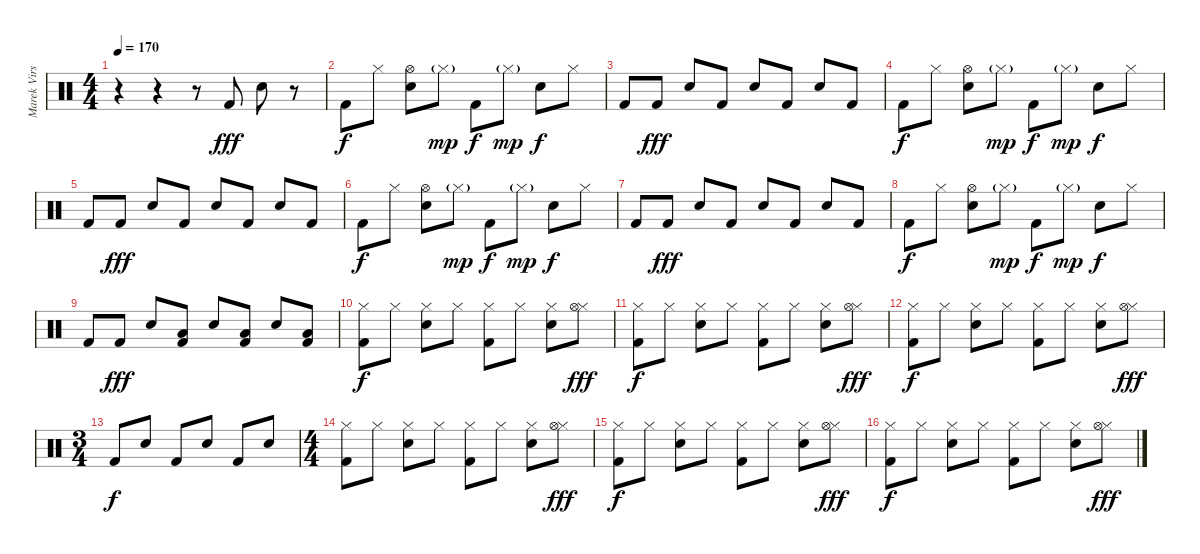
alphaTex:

\track ("Marek Virsik" "Marek Virs") {instrument percussion}
\staff {score}
\articulation defaults
\ts (4 4)
\tempo 170
\clef neutral
\ks c
r.4{dy fff} r.4 r.8 "Kick (hit) 2".8 "Electric Snare (hit)".8 r.8 |
"Kick (hit) 2".8{dy f} "Hi-Hat (closed)".8 ("Hi-Hat (open)" "Electric Snare (hit)").8 "Hi-Hat (closed)"{g}.8{dy mp} "Kick (hit) 2".8{dy f} "Hi-Hat (closed)"{g}.8{dy mp} "Electric Snare (hit)".8{dy f} "Hi-Hat (closed)".8 |
"Kick (hit) 2".8 "Kick (hit) 2".8{dy fff} "Electric Snare (hit)".8 "Kick (hit) 2".8 "Electric Snare (hit)".8 "Kick (hit) 2".8 "Electric Snare (hit)".8 "Kick (hit) 2".8 |
"Kick (hit) 2".8{dy f} "Hi-Hat (closed)".8 ("Hi-Hat (open)" "Electric Snare (hit)").8 "Hi-Hat (closed)"{g}.8{dy mp} "Kick (hit) 2".8{dy f} "Hi-Hat (closed)"{g}.8{dy mp} "Electric Snare (hit)".8{dy f} "Hi-Hat (closed)".8 |
"Kick (hit) 2".8 "Kick (hit) 2".8{dy fff} "Electric Snare (hit)".8 "Kick (hit) 2".8 "Electric Snare (hit)".8 "Kick (hit) 2".8 "Electric Snare (hit)".8 "Kick (hit) 2".8 |
"Kick (hit) 2".8{dy f} "Hi-Hat (closed)".8 ("Hi-Hat (open)" "Electric Snare (hit)").8 "Hi-Hat (closed)"{g}.8{dy mp} "Kick (hit) 2".8{dy f} "Hi-Hat (closed)"{g}.8{dy mp} "Electric Snare (hit)".8{dy f} "Hi-Hat (closed)".8 |
"Kick (hit) 2".8 "Kick (hit) 2".8{dy fff} "Electric Snare (hit)".8 "Kick (hit) 2".8 "Electric Snare (hit)".8 "Kick (hit) 2".8 "Electric Snare (hit)".8 "Kick (hit) 2".8 |
"Kick (hit) 2".8{dy f} "Hi-Hat (closed)".8 ("Hi-Hat (open)" "Electric Snare (hit)").8 "Hi-Hat (closed)"{g}.8{dy mp} "Kick (hit) 2".8{dy f} "Hi-Hat (closed)"{g}.8{dy mp} "Electric Snare (hit)".8{dy f} "Hi-Hat (closed)".8 |
"Kick (hit) 2".8 "Kick (hit) 2".8{dy fff} "Electric Snare (hit)".8 ("Low Floor Tom (hit)" "Kick (hit) 2").8 "Electric Snare (hit)".8 ("Low Floor Tom (hit)" "Kick (hit) 2").8 "Electric Snare (hit)".8 ("Low Floor Tom (hit)" "Kick (hit) 2").8 |
("Hi-Hat (closed)" "Kick (hit) 2").8{dy f} "Hi-Hat (closed)".8 ("Hi-Hat (closed)" "Electric Snare (hit)").8 "Hi-Hat (closed)".8 ("Hi-Hat (closed)" "Kick (hit) 2").8 "Hi-Hat (closed)".8 ("Hi-Hat (closed)" "Electric Snare (hit)").8 ("Hi-Hat (closed)" "Hi-Hat (open)").8{dy fff} |
("Hi-Hat (closed)" "Kick (hit) 2").8{dy f} "Hi-Hat (closed)".8 ("Hi-Hat (closed)" "Electric Snare (hit)").8 "Hi-Hat (closed)".8 ("Hi-Hat (closed)" "Kick (hit) 2").8 "Hi-Hat (closed)".8 ("Hi-Hat (closed)" "Electric Snare (hit)").8 ("Hi-Hat (closed)" "Hi-Hat (open)").8{dy fff} |
("Hi-Hat (closed)" "Kick (hit) 2").8{dy f} "Hi-Hat (closed)".8 ("Hi-Hat (closed)" "Electric Snare (hit)").8 "Hi-Hat (closed)".8 ("Hi-Hat (closed)" "Kick (hit) 2").8 "Hi-Hat (closed)".8 ("Hi-Hat (closed)" "Electric Snare (hit)").8 ("Hi-Hat (closed)" "Hi-Hat (open)").8{dy fff} |
\ts (3 4)
"Kick (hit) 2".8{dy f} "Electric Snare (hit)".8 "Kick (hit) 2".8 "Electric Snare (hit)".8 "Kick (hit) 2".8 "Electric Snare (hit)".8 |
\ts (4 4)
("Hi-Hat (closed)" "Kick (hit) 2").8 "Hi-Hat (closed)".8 ("Hi-Hat (closed)" "Electric Snare (hit)").8 "Hi-Hat (closed)".8 ("Hi-Hat (closed)" "Kick (hit) 2").8 "Hi-Hat (closed)".8 ("Hi-Hat (closed)" "Electric Snare (hit)").8 ("Hi-Hat (closed)" "Hi-Hat (open)").8{dy fff} |
("Hi-Hat (closed)" "Kick (hit) 2").8{dy f} "Hi-Hat (closed)".8 ("Hi-Hat (closed)" "Electric Snare (hit)").8 "Hi-Hat (closed)".8 ("Hi-Hat (closed)" "Kick (hit) 2").8 "Hi-Hat (closed)".8 ("Hi-Hat (closed)" "Electric Snare (hit)").8 ("Hi-Hat (closed)" "Hi-Hat (open)").8{dy fff} |
("Hi-Hat (closed)" "Kick (hit) 2").8{dy f} "Hi-Hat (closed)".8 ("Hi-Hat (closed)" "Electric Snare (hit)").8 "Hi-Hat (closed)".8 ("Hi-Hat (closed)" "Kick (hit) 2").8 "Hi-Hat (closed)".8 ("Hi-Hat (closed)" "Electric Snare (hit)").8 ("Hi-Hat (closed)" "Hi-Hat (open)").8{dy fff}
